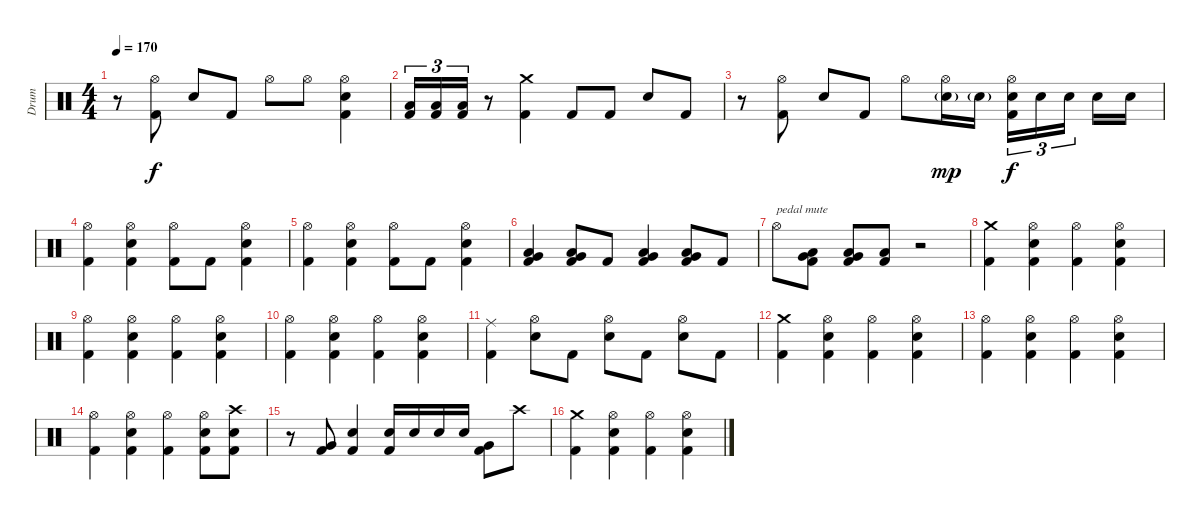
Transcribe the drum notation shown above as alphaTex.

\track ("Drum" "Drum") {instrument percussion}
\staff {score}
\articulation defaults
\ts (4 4)
\tempo 170
\clef neutral
\ks c
r.8{dy f} ("Hi-Hat (open)" "Kick (hit) 2").8 "Electric Snare (hit)".8 "Kick (hit) 2".8 "Hi-Hat (open)".8 "Hi-Hat (open)".8 ("Hi-Hat (open)" "Electric Snare (hit)" "Kick (hit) 2").4 |
("Low Floor Tom (hit)" "Kick (hit) 2").16{tu (3 2)} ("Low Floor Tom (hit)" "Kick (hit) 2").16{tu (3 2)} ("Low Floor Tom (hit)" "Kick (hit) 2").16{tu (3 2)} r.8 ("Crash medium (hit)" "Kick (hit) 2").4 "Kick (hit) 2".8 "Kick (hit) 2".8 "Electric Snare (hit)".8 "Kick (hit) 2".8 |
r.8 ("Hi-Hat (open)" "Kick (hit) 2").8 "Electric Snare (hit)".8 "Kick (hit) 2".8 "Hi-Hat (open)".8 ("Hi-Hat (open)" "Electric Snare (hit)"{g}).16{dy mp} "Electric Snare (hit)"{g}.16 ("Hi-Hat (open)" "Electric Snare (hit)" "Kick (hit) 2").16{tu (3 2) dy f} "Electric Snare (hit)".16{tu (3 2)} "Electric Snare (hit)".16{tu (3 2)} "Electric Snare (hit)".16 "Electric Snare (hit)".16 |
("Hi-Hat (open)" "Kick (hit) 2").4 ("Hi-Hat (open)" "Electric Snare (hit)" "Kick (hit) 2").4 ("Hi-Hat (open)" "Kick (hit) 2").8 "Kick (hit) 2".8 ("Hi-Hat (open)" "Electric Snare (hit)" "Kick (hit) 2").4 |
("Hi-Hat (open)" "Kick (hit) 2").4 ("Hi-Hat (open)" "Electric Snare (hit)" "Kick (hit) 2").4 ("Hi-Hat (open)" "Kick (hit) 2").8 "Kick (hit) 2".8 ("Hi-Hat (open)" "Electric Snare (hit)" "Kick (hit) 2").4 |
("Low Tom (hit)" "Very Low Tom (hit)" "Kick (hit) 2").4 ("Low Tom (hit)" "Very Low Tom (hit)" "Kick (hit) 2").8 "Kick (hit) 2".8 ("Low Tom (hit)" "Very Low Tom (hit)" "Kick (hit) 2").4 ("Low Tom (hit)" "Very Low Tom (hit)" "Kick (hit) 2").8 "Kick (hit) 2".8 |
"Hi-Hat (open)".8{txt "pedal mute"} ("Very Low Tom (hit)" "Low Floor Tom (hit)" "Kick (hit) 2").8 ("Very Low Tom (hit)" "Low Floor Tom (hit)" "Kick (hit) 2").8 ("Low Floor Tom (hit)" "Kick (hit) 2").8 r.2 |
("Crash medium (hit)" "Kick (hit) 2").4 ("Hi-Hat (open)" "Electric Snare (hit)" "Kick (hit) 2").4 ("Hi-Hat (open)" "Kick (hit) 2").4 ("Hi-Hat (open)" "Electric Snare (hit)" "Kick (hit) 2").4 |
("Hi-Hat (open)" "Kick (hit) 2").4 ("Hi-Hat (open)" "Electric Snare (hit)" "Kick (hit) 2").4 ("Hi-Hat (open)" "Kick (hit) 2").4 ("Hi-Hat (open)" "Electric Snare (hit)" "Kick (hit) 2").4 |
("Hi-Hat (open)" "Kick (hit) 2").4 ("Hi-Hat (open)" "Electric Snare (hit)" "Kick (hit) 2").4 ("Hi-Hat (open)" "Kick (hit) 2").4 ("Hi-Hat (open)" "Electric Snare (hit)" "Kick (hit) 2").4 |
("Ride (middle)" "Kick (hit) 2").4 ("Hi-Hat (open)" "Electric Snare (hit)").8 "Kick (hit) 2".8 ("Hi-Hat (open)" "Electric Snare (hit)").8 "Kick (hit) 2".8 ("Hi-Hat (open)" "Electric Snare (hit)").8 "Kick (hit) 2".8 |
("Crash medium (hit)" "Kick (hit) 2").4 ("Hi-Hat (open)" "Electric Snare (hit)" "Kick (hit) 2").4 ("Hi-Hat (open)" "Kick (hit) 2").4 ("Hi-Hat (open)" "Electric Snare (hit)" "Kick (hit) 2").4 |
("Hi-Hat (open)" "Kick (hit) 2").4 ("Hi-Hat (open)" "Electric Snare (hit)" "Kick (hit) 2").4 ("Hi-Hat (open)" "Kick (hit) 2").4 ("Hi-Hat (open)" "Electric Snare (hit)" "Kick (hit) 2").4 |
("Hi-Hat (open)" "Kick (hit) 2").4 ("Hi-Hat (open)" "Electric Snare (hit)" "Kick (hit) 2").4 ("Hi-Hat (open)" "Kick (hit) 2").4 ("Hi-Hat (open)" "Electric Snare (hit)" "Kick (hit) 2").8 ("Crash high (hit)" "Electric Snare (hit)" "Kick (hit) 2").8 |
r.8 ("Very Low Tom (hit)" "Kick (hit) 2").8 ("Electric Snare (hit)" "Kick (hit) 2").4 ("Electric Snare (hit)" "Kick (hit) 2").16 "Electric Snare (hit)".16 "Electric Snare (hit)".16 "Electric Snare (hit)".16 ("Very Low Tom (hit)" "Kick (hit) 2").8 "Crash high (hit)".8 |
("Crash medium (hit)" "Kick (hit) 2").4 ("Hi-Hat (open)" "Electric Snare (hit)" "Kick (hit) 2").4 ("Hi-Hat (open)" "Kick (hit) 2").4 ("Hi-Hat (open)" "Electric Snare (hit)" "Kick (hit) 2").4
